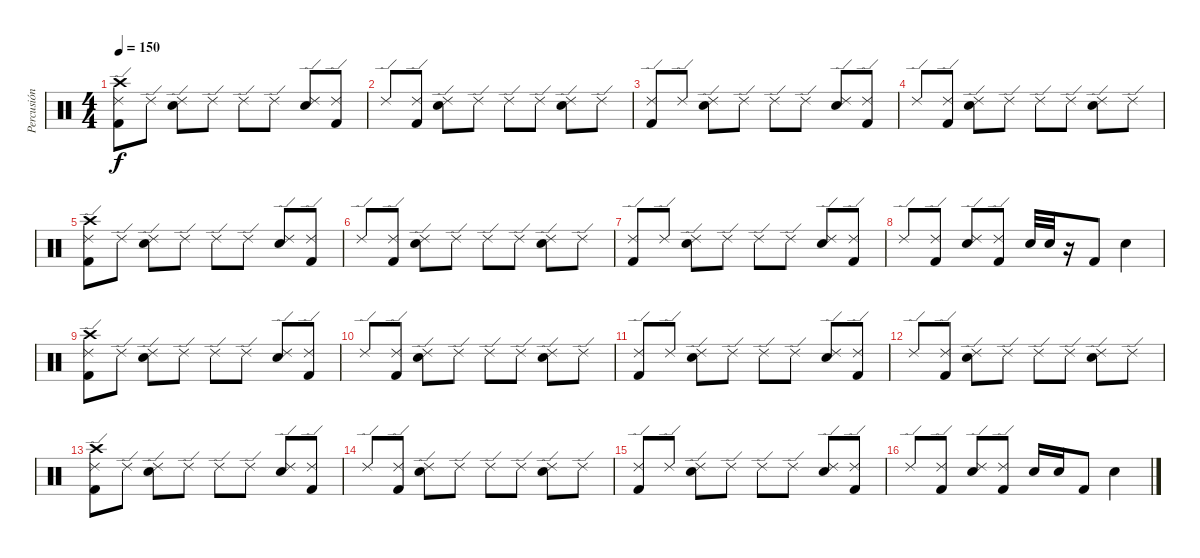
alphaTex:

\track ("Percusión" "Percusión") {instrument percussion}
\staff {score}
\articulation defaults
\ts (4 4)
\tempo 150
\clef neutral
\ks c
("Crash high (hit)" "Ride (edge) 2" "Kick (hit) 2").8{dy f} "Ride (edge) 2".8 ("Ride (edge) 2" "Snare (hit) 2").8 "Ride (edge) 2".8 "Ride (edge) 2".8 "Ride (edge) 2".8 ("Ride (edge) 2" "Snare (hit) 2").8 ("Ride (edge) 2" "Kick (hit) 2").8 |
"Ride (edge) 2".8 ("Ride (edge) 2" "Kick (hit) 2").8 ("Ride (edge) 2" "Snare (hit) 2").8 "Ride (edge) 2".8 "Ride (edge) 2".8 "Ride (edge) 2".8 ("Ride (edge) 2" "Snare (hit) 2").8 "Ride (edge) 2".8 |
("Ride (edge) 2" "Kick (hit) 2").8 "Ride (edge) 2".8 ("Ride (edge) 2" "Snare (hit) 2").8 "Ride (edge) 2".8 "Ride (edge) 2".8 "Ride (edge) 2".8 ("Ride (edge) 2" "Snare (hit) 2").8 ("Ride (edge) 2" "Kick (hit) 2").8 |
"Ride (edge) 2".8 ("Ride (edge) 2" "Kick (hit) 2").8 ("Ride (edge) 2" "Snare (hit) 2").8 "Ride (edge) 2".8 "Ride (edge) 2".8 "Ride (edge) 2".8 ("Ride (edge) 2" "Snare (hit) 2").8 "Ride (edge) 2".8 |
("Crash high (hit)" "Ride (edge) 2" "Kick (hit) 2").8 "Ride (edge) 2".8 ("Ride (edge) 2" "Snare (hit) 2").8 "Ride (edge) 2".8 "Ride (edge) 2".8 "Ride (edge) 2".8 ("Ride (edge) 2" "Snare (hit) 2").8 ("Ride (edge) 2" "Kick (hit) 2").8 |
"Ride (edge) 2".8 ("Ride (edge) 2" "Kick (hit) 2").8 ("Ride (edge) 2" "Snare (hit) 2").8 "Ride (edge) 2".8 "Ride (edge) 2".8 "Ride (edge) 2".8 ("Ride (edge) 2" "Snare (hit) 2").8 "Ride (edge) 2".8 |
("Ride (edge) 2" "Kick (hit) 2").8 "Ride (edge) 2".8 ("Ride (edge) 2" "Snare (hit) 2").8 "Ride (edge) 2".8 "Ride (edge) 2".8 "Ride (edge) 2".8 ("Ride (edge) 2" "Snare (hit) 2").8 ("Ride (edge) 2" "Kick (hit) 2").8 |
"Ride (edge) 2".8 ("Ride (edge) 2" "Kick (hit) 2").8 ("Ride (edge) 2" "Snare (hit) 2").8 ("Ride (edge) 2" "Kick (hit) 2").8 "Snare (hit) 2".32 "Snare (hit) 2".32 r.16 "Kick (hit) 2".8 "Snare (hit) 2".4 |
("Crash high (hit)" "Ride (edge) 2" "Kick (hit) 2").8 "Ride (edge) 2".8 ("Ride (edge) 2" "Snare (hit) 2").8 "Ride (edge) 2".8 "Ride (edge) 2".8 "Ride (edge) 2".8 ("Ride (edge) 2" "Snare (hit) 2").8 ("Ride (edge) 2" "Kick (hit) 2").8 |
"Ride (edge) 2".8 ("Ride (edge) 2" "Kick (hit) 2").8 ("Ride (edge) 2" "Snare (hit) 2").8 "Ride (edge) 2".8 "Ride (edge) 2".8 "Ride (edge) 2".8 ("Ride (edge) 2" "Snare (hit) 2").8 "Ride (edge) 2".8 |
("Ride (edge) 2" "Kick (hit) 2").8 "Ride (edge) 2".8 ("Ride (edge) 2" "Snare (hit) 2").8 "Ride (edge) 2".8 "Ride (edge) 2".8 "Ride (edge) 2".8 ("Ride (edge) 2" "Snare (hit) 2").8 ("Ride (edge) 2" "Kick (hit) 2").8 |
"Ride (edge) 2".8 ("Ride (edge) 2" "Kick (hit) 2").8 ("Ride (edge) 2" "Snare (hit) 2").8 "Ride (edge) 2".8 "Ride (edge) 2".8 "Ride (edge) 2".8 ("Ride (edge) 2" "Snare (hit) 2").8 "Ride (edge) 2".8 |
("Crash high (hit)" "Ride (edge) 2" "Kick (hit) 2").8 "Ride (edge) 2".8 ("Ride (edge) 2" "Snare (hit) 2").8 "Ride (edge) 2".8 "Ride (edge) 2".8 "Ride (edge) 2".8 ("Ride (edge) 2" "Snare (hit) 2").8 ("Ride (edge) 2" "Kick (hit) 2").8 |
"Ride (edge) 2".8 ("Ride (edge) 2" "Kick (hit) 2").8 ("Ride (edge) 2" "Snare (hit) 2").8 "Ride (edge) 2".8 "Ride (edge) 2".8 "Ride (edge) 2".8 ("Ride (edge) 2" "Snare (hit) 2").8 "Ride (edge) 2".8 |
("Ride (edge) 2" "Kick (hit) 2").8 "Ride (edge) 2".8 ("Ride (edge) 2" "Snare (hit) 2").8 "Ride (edge) 2".8 "Ride (edge) 2".8 "Ride (edge) 2".8 ("Ride (edge) 2" "Snare (hit) 2").8 ("Ride (edge) 2" "Kick (hit) 2").8 |
"Ride (edge) 2".8 ("Ride (edge) 2" "Kick (hit) 2").8 ("Ride (edge) 2" "Snare (hit) 2").8 ("Ride (edge) 2" "Kick (hit) 2").8 "Snare (hit) 2".16 "Snare (hit) 2".16 "Kick (hit) 2".8 "Snare (hit) 2".4
